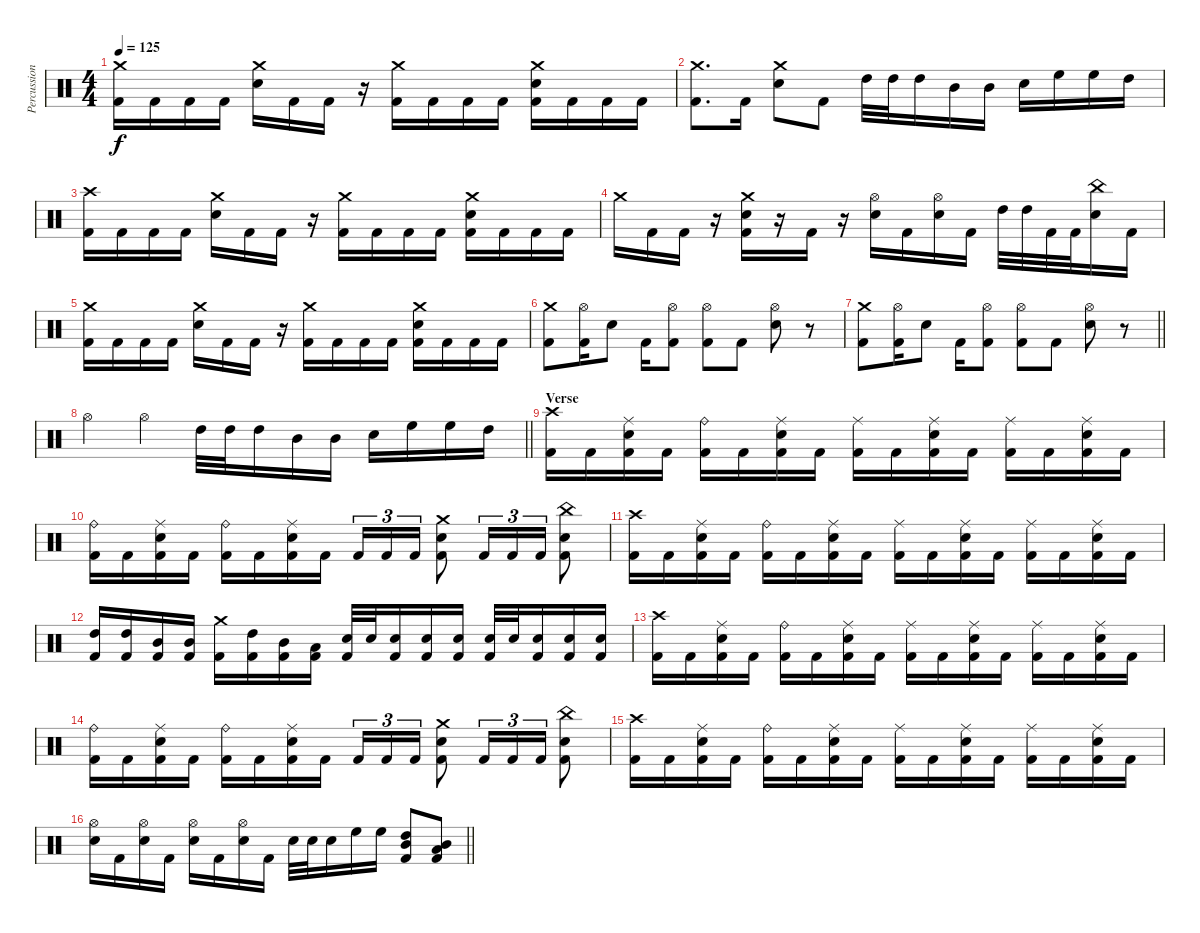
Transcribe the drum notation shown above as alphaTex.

\track ("Percussion" "Percussion") {instrument percussion}
\staff {score}
\articulation defaults
\ts (4 4)
\tempo 125
\clef neutral
\ks c
("Crash medium (hit)" "Kick (hit) 2").16{dy f} "Kick (hit) 2".16 "Kick (hit) 2".16 "Kick (hit) 2".16 ("Crash medium (hit)" "Snare (hit) 2").16 "Kick (hit) 2".16 "Kick (hit) 2".16 r.16 ("Crash medium (hit)" "Kick (hit) 2").16 "Kick (hit) 2".16 "Kick (hit) 2".16 "Kick (hit) 2".16 ("Crash medium (hit)" "Snare (hit) 2" "Kick (hit) 2").16 "Kick (hit) 2".16 "Kick (hit) 2".16 "Kick (hit) 2".16 |
("Crash medium (hit)" "Kick (hit) 2").8{d} "Kick (hit) 2".16 ("Crash medium (hit)" "Snare (hit) 2").8 "Kick (hit) 2".8 "High Tom (hit)".32 "High Tom (hit)".32 "High Tom (hit)".16 "Mid Tom (hit)".16 "Mid Tom (hit)".16 "Snare (hit) 2".16 "High Floor Tom (hit)".16 "High Floor Tom (hit)".16 "High Tom (hit)".16 |
("Crash high (hit)" "Kick (hit) 2").16 "Kick (hit) 2".16 "Kick (hit) 2".16 "Kick (hit) 2".16 ("Crash medium (hit)" "Snare (hit) 2").16 "Kick (hit) 2".16 "Kick (hit) 2".16 r.16 ("Crash medium (hit)" "Kick (hit) 2").16 "Kick (hit) 2".16 "Kick (hit) 2".16 "Kick (hit) 2".16 ("Crash medium (hit)" "Snare (hit) 2" "Kick (hit) 2").16 "Kick (hit) 2".16 "Kick (hit) 2".16 "Kick (hit) 2".16 |
"Crash medium (hit)".16 "Kick (hit) 2".16 "Kick (hit) 2".16 r.16 ("Crash medium (hit)" "Snare (hit) 2" "Kick (hit) 2").16 r.16 "Kick (hit) 2".16 r.16 ("Hi-Hat (open)" "Snare (hit) 2").16 "Kick (hit) 2".16 ("Hi-Hat (open)" "Snare (hit) 2").16 "Kick (hit) 2".16 "High Tom (hit)".32 "High Tom (hit)".32 "Kick (hit) 2".32 "Kick (hit) 2".32 ("China (hit)" "Snare (hit) 2").16 "Kick (hit) 2".16 |
("Crash medium (hit)" "Kick (hit) 2").16 "Kick (hit) 2".16 "Kick (hit) 2".16 "Kick (hit) 2".16 ("Crash medium (hit)" "Snare (hit) 2").16 "Kick (hit) 2".16 "Kick (hit) 2".16 r.16 ("Crash medium (hit)" "Kick (hit) 2").16 "Kick (hit) 2".16 "Kick (hit) 2".16 "Kick (hit) 2".16 ("Crash medium (hit)" "Snare (hit) 2" "Kick (hit) 2").16 "Kick (hit) 2".16 "Kick (hit) 2".16 "Kick (hit) 2".16 |
("Crash medium (hit)" "Kick (hit) 2").8 ("Hi-Hat (open)" "Kick (hit) 2").16 "Snare (hit) 2".8 "Kick (hit) 2".16 ("Hi-Hat (open)" "Kick (hit) 2").8 ("Hi-Hat (open)" "Kick (hit) 2").8 "Kick (hit) 2".8 ("Hi-Hat (open)" "Snare (hit) 2").8 r.8 |
\barLineRight lightlight
("Crash medium (hit)" "Kick (hit) 2").8 ("Hi-Hat (open)" "Kick (hit) 2").16 "Snare (hit) 2".8 "Kick (hit) 2".16 ("Hi-Hat (open)" "Kick (hit) 2").8 ("Hi-Hat (open)" "Kick (hit) 2").8 "Kick (hit) 2".8 ("Hi-Hat (open)" "Snare (hit) 2").8 r.8 |
\barLineRight lightlight "Hi-Hat (open)".4 "Hi-Hat (open)".4 "High Tom (hit)".32 "High Tom (hit)".32 "High Tom (hit)".16 "Mid Tom (hit)".16 "Mid Tom (hit)".16 "Snare (hit) 2".16 "High Floor Tom (hit)".16 "High Floor Tom (hit)".16 "High Tom (hit)".16
|
\section ("" "Verse")
("Crash high (hit)" "Kick (hit) 2").16 "Kick (hit) 2".16 ("Ride (middle)" "Snare (hit) 2" "Kick (hit) 2").16 "Kick (hit) 2".16 ("Ride (bell)" "Kick (hit) 2").16 "Kick (hit) 2".16 ("Ride (middle)" "Snare (hit) 2" "Kick (hit) 2").16 "Kick (hit) 2".16 ("Ride (middle)" "Kick (hit) 2").16 "Kick (hit) 2".16 ("Ride (middle)" "Snare (hit) 2" "Kick (hit) 2").16 "Kick (hit) 2".16 ("Ride (middle)" "Kick (hit) 2").16 "Kick (hit) 2".16 ("Ride (middle)" "Snare (hit) 2" "Kick (hit) 2").16 "Kick (hit) 2".16 |
("Ride (bell)" "Kick (hit) 2").16 "Kick (hit) 2".16 ("Ride (middle)" "Snare (hit) 2" "Kick (hit) 2").16 "Kick (hit) 2".16 ("Ride (bell)" "Kick (hit) 2").16 "Kick (hit) 2".16 ("Ride (middle)" "Snare (hit) 2" "Kick (hit) 2").16 "Kick (hit) 2".16 "Kick (hit) 2".16{tu (3 2)} "Kick (hit) 2".16{tu (3 2)} "Kick (hit) 2".16{tu (3 2)} ("Crash medium (hit)" "Snare (hit) 2" "Kick (hit) 2").8 "Kick (hit) 2".16{tu (3 2)} "Kick (hit) 2".16{tu (3 2)} "Kick (hit) 2".16{tu (3 2)} ("China (hit)" "Snare (hit) 2" "Kick (hit) 2").8 |
("Crash high (hit)" "Kick (hit) 2").16 "Kick (hit) 2".16 ("Ride (middle)" "Snare (hit) 2" "Kick (hit) 2").16 "Kick (hit) 2".16 ("Ride (bell)" "Kick (hit) 2").16 "Kick (hit) 2".16 ("Ride (middle)" "Snare (hit) 2" "Kick (hit) 2").16 "Kick (hit) 2".16 ("Ride (middle)" "Kick (hit) 2").16 "Kick (hit) 2".16 ("Ride (middle)" "Snare (hit) 2" "Kick (hit) 2").16 "Kick (hit) 2".16 ("Ride (middle)" "Kick (hit) 2").16 "Kick (hit) 2".16 ("Ride (middle)" "Snare (hit) 2" "Kick (hit) 2").16 "Kick (hit) 2".16 |
("High Tom (hit)" "Kick (hit) 2").16 ("High Tom (hit)" "Kick (hit) 2").16 ("Mid Tom (hit)" "Kick (hit) 2").16 ("Mid Tom (hit)" "Kick (hit) 2").16 ("Crash medium (hit)" "Kick (hit) 2").16 ("High Tom (hit)" "Kick (hit) 2").16 ("Mid Tom (hit)" "Kick (hit) 2").16 ("Low Tom (hit)" "Kick (hit) 2").16 ("Snare (hit) 2" "Kick (hit) 2").32 "Snare (hit) 2".32 ("Snare (hit) 2" "Kick (hit) 2").16 ("Snare (hit) 2" "Kick (hit) 2").16 ("Snare (hit) 2" "Kick (hit) 2").16 ("Snare (hit) 2" "Kick (hit) 2").32 "Snare (hit) 2".32 ("Snare (hit) 2" "Kick (hit) 2").16 ("Snare (hit) 2" "Kick (hit) 2").16 ("Snare (hit) 2" "Kick (hit) 2").16 |
("Crash high (hit)" "Kick (hit) 2").16 "Kick (hit) 2".16 ("Ride (middle)" "Snare (hit) 2" "Kick (hit) 2").16 "Kick (hit) 2".16 ("Ride (bell)" "Kick (hit) 2").16 "Kick (hit) 2".16 ("Ride (middle)" "Snare (hit) 2" "Kick (hit) 2").16 "Kick (hit) 2".16 ("Ride (middle)" "Kick (hit) 2").16 "Kick (hit) 2".16 ("Ride (middle)" "Snare (hit) 2" "Kick (hit) 2").16 "Kick (hit) 2".16 ("Ride (middle)" "Kick (hit) 2").16 "Kick (hit) 2".16 ("Ride (middle)" "Snare (hit) 2" "Kick (hit) 2").16 "Kick (hit) 2".16 |
("Ride (bell)" "Kick (hit) 2").16 "Kick (hit) 2".16 ("Ride (middle)" "Snare (hit) 2" "Kick (hit) 2").16 "Kick (hit) 2".16 ("Ride (bell)" "Kick (hit) 2").16 "Kick (hit) 2".16 ("Ride (middle)" "Snare (hit) 2" "Kick (hit) 2").16 "Kick (hit) 2".16 "Kick (hit) 2".16{tu (3 2)} "Kick (hit) 2".16{tu (3 2)} "Kick (hit) 2".16{tu (3 2)} ("Crash medium (hit)" "Snare (hit) 2" "Kick (hit) 2").8 "Kick (hit) 2".16{tu (3 2)} "Kick (hit) 2".16{tu (3 2)} "Kick (hit) 2".16{tu (3 2)} ("China (hit)" "Snare (hit) 2" "Kick (hit) 2").8 |
("Crash high (hit)" "Kick (hit) 2").16 "Kick (hit) 2".16 ("Ride (middle)" "Snare (hit) 2" "Kick (hit) 2").16 "Kick (hit) 2".16 ("Ride (bell)" "Kick (hit) 2").16 "Kick (hit) 2".16 ("Ride (middle)" "Snare (hit) 2" "Kick (hit) 2").16 "Kick (hit) 2".16 ("Ride (middle)" "Kick (hit) 2").16 "Kick (hit) 2".16 ("Ride (middle)" "Snare (hit) 2" "Kick (hit) 2").16 "Kick (hit) 2".16 ("Ride (middle)" "Kick (hit) 2").16 "Kick (hit) 2".16 ("Ride (middle)" "Snare (hit) 2" "Kick (hit) 2").16 "Kick (hit) 2".16 |
\barLineRight lightlight
("Hi-Hat (open)" "Snare (hit) 2").16 "Kick (hit) 2".16 ("Hi-Hat (open)" "Snare (hit) 2").16 "Kick (hit) 2".16 ("Hi-Hat (open)" "Snare (hit) 2").16 "Kick (hit) 2".16 ("Hi-Hat (open)" "Snare (hit) 2").16 "Kick (hit) 2".16 "Snare (hit) 2".32 "Snare (hit) 2".32 "Snare (hit) 2".16 "High Floor Tom (hit)".16 "High Floor Tom (hit)".16 ("High Tom (hit)" "Mid Tom (hit)" "Kick (hit) 2").8 ("Mid Tom (hit)" "Low Tom (hit)" "Kick (hit) 2").8
